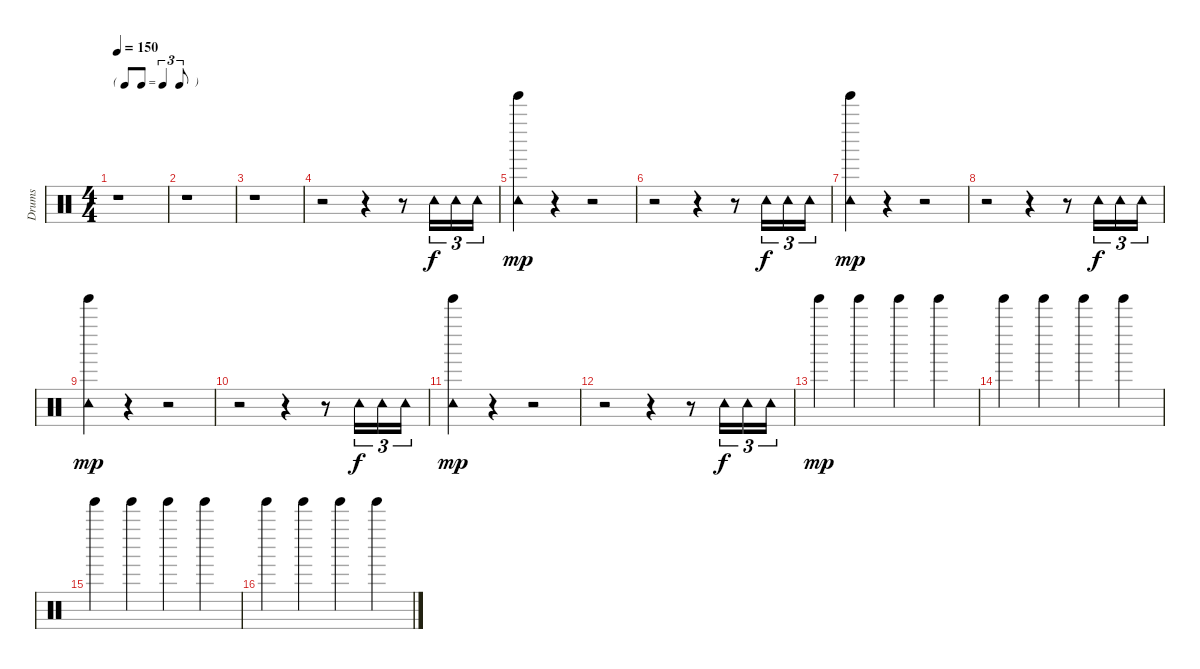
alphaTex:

\track ("Drums" "Drums") {instrument percussion}
\staff {score}
\articulation defaults
\ts (4 4)
\tf triplet8th
\tempo 150
\clef neutral
\ks c
r.1{dy f} |
r.1 |
r.1 |
r.2 r.4 r.8 "Tambourine (hit)".16{tu (3 2)} "Tambourine (hit)".16{tu (3 2)} "Tambourine (hit)".16{tu (3 2)} |
("Tambourine (hit)" "Tinkle Bell (hit)").4{dy mp} r.4 r.2 |
r.2 r.4 r.8 "Tambourine (hit)".16{tu (3 2) dy f} "Tambourine (hit)".16{tu (3 2)} "Tambourine (hit)".16{tu (3 2)} |
("Tambourine (hit)" "Tinkle Bell (hit)").4{dy mp} r.4 r.2 |
r.2 r.4 r.8 "Tambourine (hit)".16{tu (3 2) dy f} "Tambourine (hit)".16{tu (3 2)} "Tambourine (hit)".16{tu (3 2)} |
("Tambourine (hit)" "Tinkle Bell (hit)").4{dy mp} r.4 r.2 |
r.2 r.4 r.8 "Tambourine (hit)".16{tu (3 2) dy f} "Tambourine (hit)".16{tu (3 2)} "Tambourine (hit)".16{tu (3 2)} |
("Tambourine (hit)" "Tinkle Bell (hit)").4{dy mp} r.4 r.2 |
r.2 r.4 r.8 "Tambourine (hit)".16{tu (3 2) dy f} "Tambourine (hit)".16{tu (3 2)} "Tambourine (hit)".16{tu (3 2)} |
"Tinkle Bell (hit)".4{dy mp} "Tinkle Bell (hit)".4 "Tinkle Bell (hit)".4 "Tinkle Bell (hit)".4 |
"Tinkle Bell (hit)".4 "Tinkle Bell (hit)".4 "Tinkle Bell (hit)".4 "Tinkle Bell (hit)".4 |
"Tinkle Bell (hit)".4 "Tinkle Bell (hit)".4 "Tinkle Bell (hit)".4 "Tinkle Bell (hit)".4 |
"Tinkle Bell (hit)".4 "Tinkle Bell (hit)".4 "Tinkle Bell (hit)".4 "Tinkle Bell (hit)".4
